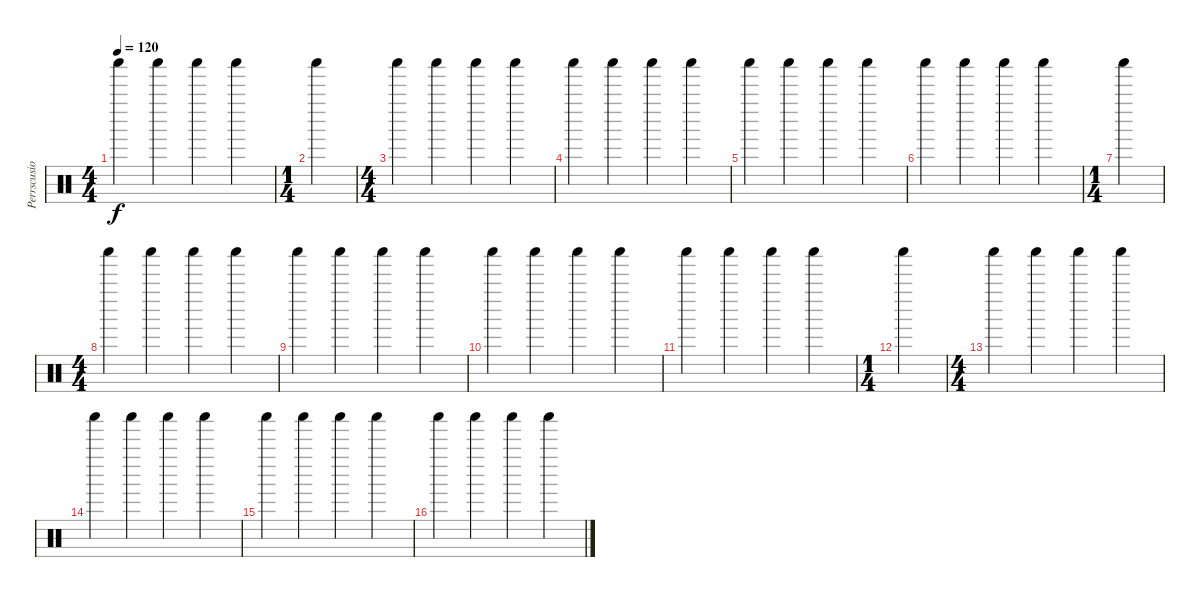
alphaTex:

\track ("Perrscusion" "Perrscusio") {instrument percussion}
\staff {score}
\articulation defaults
\ts (4 4)
\tempo 120
\clef neutral
\ks c "Shaker (hit)".4{dy f} "Shaker (hit)".4 "Shaker (hit)".4 "Shaker (hit)".4
|
\ts (1 4)
"Shaker (hit)".4 |
\ts (4 4)
"Shaker (hit)".4 "Shaker (hit)".4 "Shaker (hit)".4 "Shaker (hit)".4 |
"Shaker (hit)".4 "Shaker (hit)".4 "Shaker (hit)".4 "Shaker (hit)".4 |
"Shaker (hit)".4 "Shaker (hit)".4 "Shaker (hit)".4 "Shaker (hit)".4 |
"Shaker (hit)".4 "Shaker (hit)".4 "Shaker (hit)".4 "Shaker (hit)".4 |
\ts (1 4)
"Shaker (hit)".4 |
\ts (4 4)
"Shaker (hit)".4 "Shaker (hit)".4 "Shaker (hit)".4 "Shaker (hit)".4 |
"Shaker (hit)".4 "Shaker (hit)".4 "Shaker (hit)".4 "Shaker (hit)".4 |
"Shaker (hit)".4 "Shaker (hit)".4 "Shaker (hit)".4 "Shaker (hit)".4 |
"Shaker (hit)".4 "Shaker (hit)".4 "Shaker (hit)".4 "Shaker (hit)".4 |
\ts (1 4)
"Shaker (hit)".4 |
\ts (4 4)
"Shaker (hit)".4 "Shaker (hit)".4 "Shaker (hit)".4 "Shaker (hit)".4 |
"Shaker (hit)".4 "Shaker (hit)".4 "Shaker (hit)".4 "Shaker (hit)".4 |
"Shaker (hit)".4 "Shaker (hit)".4 "Shaker (hit)".4 "Shaker (hit)".4 |
"Shaker (hit)".4 "Shaker (hit)".4 "Shaker (hit)".4 "Shaker (hit)".4
